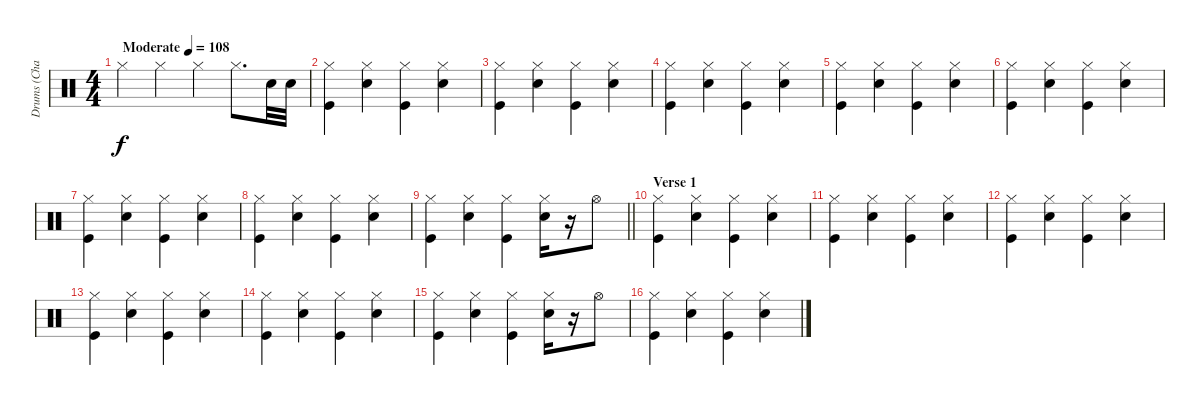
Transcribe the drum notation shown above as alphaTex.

\track ("Drums (Chad Smith)" "Drums (Cha") {instrument percussion}
\staff {score}
\articulation defaults
\ts (4 4)
\tempo (108 "Moderate")
\clef neutral
\ks c "Hi-Hat (closed)".4{dy f} "Hi-Hat (closed)".4 "Hi-Hat (closed)".4 "Hi-Hat (closed)".8{d} "Snare (hit) 2".32 "Snare (hit) 2".32
|
("Hi-Hat (closed)" "Kick (hit)").4 ("Hi-Hat (closed)" "Snare (hit) 2").4 ("Hi-Hat (closed)" "Kick (hit)").4 ("Hi-Hat (closed)" "Snare (hit) 2").4 |
("Hi-Hat (closed)" "Kick (hit)").4 ("Hi-Hat (closed)" "Snare (hit) 2").4 ("Hi-Hat (closed)" "Kick (hit)").4 ("Hi-Hat (closed)" "Snare (hit) 2").4 |
("Hi-Hat (closed)" "Kick (hit)").4 ("Hi-Hat (closed)" "Snare (hit) 2").4 ("Hi-Hat (closed)" "Kick (hit)").4 ("Hi-Hat (closed)" "Snare (hit) 2").4 |
("Hi-Hat (closed)" "Kick (hit)").4 ("Hi-Hat (closed)" "Snare (hit) 2").4 ("Hi-Hat (closed)" "Kick (hit)").4 ("Hi-Hat (closed)" "Snare (hit) 2").4 |
("Hi-Hat (closed)" "Kick (hit)").4 ("Hi-Hat (closed)" "Snare (hit) 2").4 ("Hi-Hat (closed)" "Kick (hit)").4 ("Hi-Hat (closed)" "Snare (hit) 2").4 |
("Hi-Hat (closed)" "Kick (hit)").4 ("Hi-Hat (closed)" "Snare (hit) 2").4 ("Hi-Hat (closed)" "Kick (hit)").4 ("Hi-Hat (closed)" "Snare (hit) 2").4 |
("Hi-Hat (closed)" "Kick (hit)").4 ("Hi-Hat (closed)" "Snare (hit) 2").4 ("Hi-Hat (closed)" "Kick (hit)").4 ("Hi-Hat (closed)" "Snare (hit) 2").4 |
\barLineRight lightlight
("Hi-Hat (closed)" "Kick (hit)").4 ("Hi-Hat (closed)" "Snare (hit) 2").4 ("Hi-Hat (closed)" "Kick (hit)").4 ("Hi-Hat (closed)" "Snare (hit) 2").16 r.16 "Hi-Hat (open)".8 |
\section ("" "Verse 1")
("Hi-Hat (closed)" "Kick (hit)").4 ("Hi-Hat (closed)" "Snare (hit) 2").4 ("Hi-Hat (closed)" "Kick (hit)").4 ("Hi-Hat (closed)" "Snare (hit) 2").4 |
("Hi-Hat (closed)" "Kick (hit)").4 ("Hi-Hat (closed)" "Snare (hit) 2").4 ("Hi-Hat (closed)" "Kick (hit)").4 ("Hi-Hat (closed)" "Snare (hit) 2").4 |
("Hi-Hat (closed)" "Kick (hit)").4 ("Hi-Hat (closed)" "Snare (hit) 2").4 ("Hi-Hat (closed)" "Kick (hit)").4 ("Hi-Hat (closed)" "Snare (hit) 2").4 |
("Hi-Hat (closed)" "Kick (hit)").4 ("Hi-Hat (closed)" "Snare (hit) 2").4 ("Hi-Hat (closed)" "Kick (hit)").4 ("Hi-Hat (closed)" "Snare (hit) 2").4 |
("Hi-Hat (closed)" "Kick (hit)").4 ("Hi-Hat (closed)" "Snare (hit) 2").4 ("Hi-Hat (closed)" "Kick (hit)").4 ("Hi-Hat (closed)" "Snare (hit) 2").4 |
("Hi-Hat (closed)" "Kick (hit)").4 ("Hi-Hat (closed)" "Snare (hit) 2").4 ("Hi-Hat (closed)" "Kick (hit)").4 ("Hi-Hat (closed)" "Snare (hit) 2").16 r.16 "Hi-Hat (open)".8 |
("Hi-Hat (closed)" "Kick (hit)").4 ("Hi-Hat (closed)" "Snare (hit) 2").4 ("Hi-Hat (closed)" "Kick (hit)").4 ("Hi-Hat (closed)" "Snare (hit) 2").4
